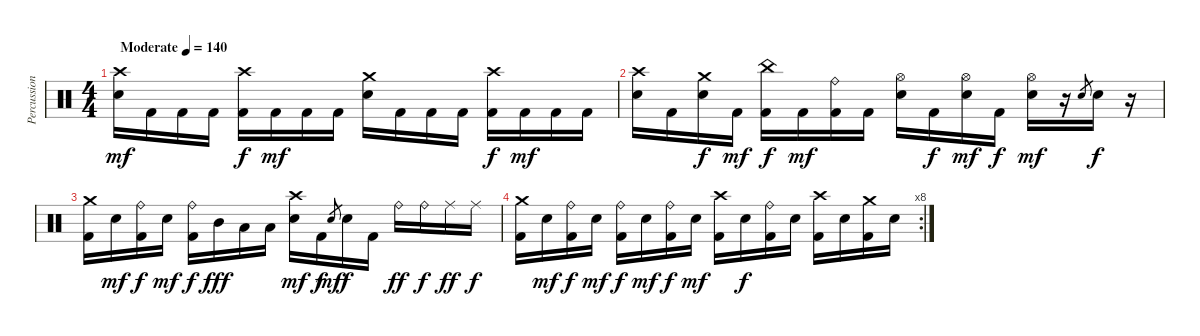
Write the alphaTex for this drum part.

\track ("Percussion" "Percussion") {instrument percussion}
\staff {score}
\articulation defaults
\ts (4 4)
\tempo (140 "Moderate")
\clef neutral
\ks c
("Crash high (hit)" "Electric Snare (hit)").16{dy mf} "Kick (hit) 2".16 "Kick (hit) 2".16 "Kick (hit) 2".16 ("Crash high (hit)" "Kick (hit) 2").16{dy f} "Kick (hit) 2".16{dy mf} "Kick (hit) 2".16 "Kick (hit) 2".16 ("Crash medium (hit)" "Electric Snare (hit)").16 "Kick (hit) 2".16 "Kick (hit) 2".16 "Kick (hit) 2".16 ("Crash high (hit)" "Kick (hit) 2").16{dy f} "Kick (hit) 2".16{dy mf} "Kick (hit) 2".16 "Kick (hit) 2".16 |
("Crash high (hit)" "Electric Snare (hit)").16 "Kick (hit) 2".16 ("Crash medium (hit)" "Electric Snare (hit)").16{dy f} "Kick (hit) 2".16{dy mf} ("China (hit)" "Kick (hit) 2").16{dy f} "Kick (hit) 2".16{dy mf} ("Ride (bell)" "Kick (hit) 2").16 "Kick (hit) 2".16 ("Hi-Hat (open)" "Electric Snare (hit)").16 "Kick (hit) 2".16{dy f} ("Hi-Hat (open)" "Electric Snare (hit)").16{dy mf} "Kick (hit) 2".16{dy f} ("Hi-Hat (open)" "Electric Snare (hit)").16{dy mf} r.16 "Electric Snare (hit)".8{gr} "Electric Snare (hit)".16{dy f} r.16 |
("Crash medium (hit)" "Kick (hit) 2").16 "Electric Snare (hit)".16{dy mf} ("Ride (bell)" "Kick (hit) 2").16{dy f} "Electric Snare (hit)".16{dy mf} ("Ride (bell)" "Kick (hit) 2").16{dy f} "Mid Tom (hit)".16{dy fff} "Low Tom (hit)".16 "Low Floor Tom (hit)".16 ("Crash high (hit)" "Electric Snare (hit)").16{dy mf} "Kick (hit) 2".16{dy f} "Electric Snare (hit)".8{gr dy mf} "Electric Snare (hit)".16{dy f} "Kick (hit) 2".16 "Ride (bell)".16{dy ff} "Ride (bell)".16{dy f} "Ride (middle)".16{dy ff} "Ride (middle)".16{dy f} |
\rc 8
("Crash medium (hit)" "Kick (hit) 2").16 "Electric Snare (hit)".16{dy mf} ("Ride (bell)" "Kick (hit) 2").16{dy f} "Electric Snare (hit)".16{dy mf} ("Ride (bell)" "Kick (hit) 2").16{dy f} "Electric Snare (hit)".16{dy mf} ("Ride (bell)" "Kick (hit) 2").16{dy f} "Electric Snare (hit)".16{dy mf} ("Crash high (hit)" "Kick (hit) 2").16 "Electric Snare (hit)".16{dy f} ("Ride (bell)" "Kick (hit) 2").16 "Electric Snare (hit)".16 ("Crash high (hit)" "Kick (hit) 2").16 "Electric Snare (hit)".16 ("Crash medium (hit)" "Kick (hit) 2").16 "Electric Snare (hit)".16
